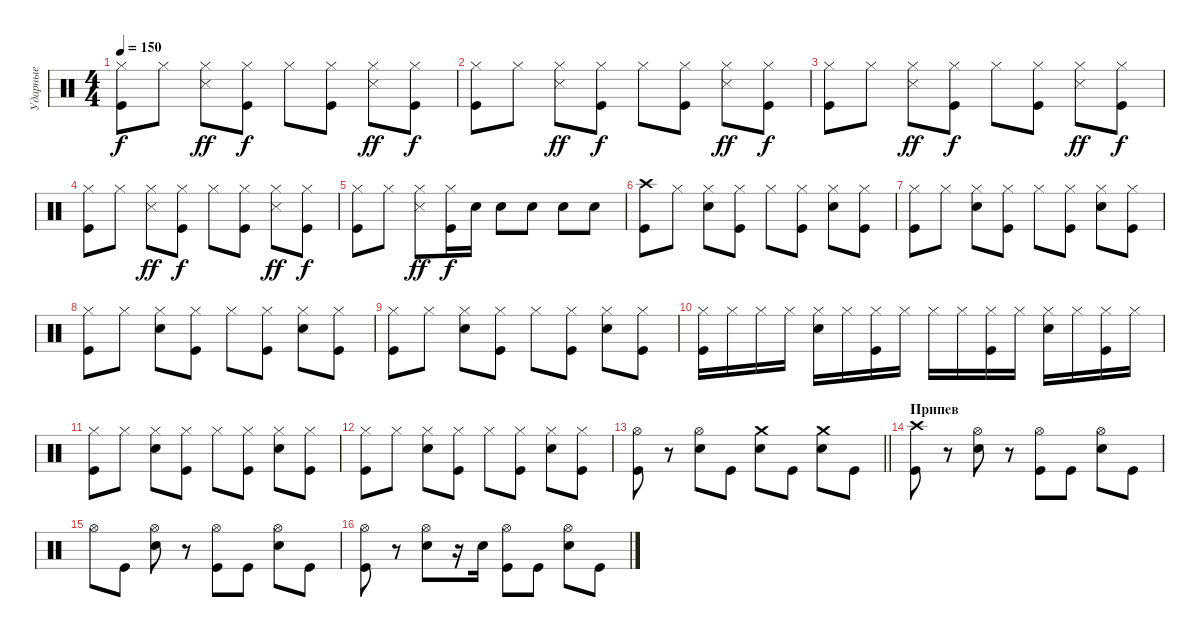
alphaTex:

\track ("Ударные" "Ударные") {instrument percussion}
\staff {score}
\articulation defaults
\ts (4 4)
\tempo 150
\clef neutral
\ks c
("Kick (hit)" "Hi-Hat (closed)").8{dy f} "Hi-Hat (closed)".8 ("Snare (side stick) 3" "Hi-Hat (closed)").8{dy ff} ("Kick (hit)" "Hi-Hat (closed)").8{dy f} "Hi-Hat (closed)".8 ("Kick (hit)" "Hi-Hat (closed)").8 ("Snare (side stick) 3" "Hi-Hat (closed)").8{dy ff} ("Kick (hit)" "Hi-Hat (closed)").8{dy f} |
("Kick (hit)" "Hi-Hat (closed)").8 "Hi-Hat (closed)".8 ("Snare (side stick) 3" "Hi-Hat (closed)").8{dy ff} ("Kick (hit)" "Hi-Hat (closed)").8{dy f} "Hi-Hat (closed)".8 ("Kick (hit)" "Hi-Hat (closed)").8 ("Snare (side stick) 3" "Hi-Hat (closed)").8{dy ff} ("Kick (hit)" "Hi-Hat (closed)").8{dy f} |
("Kick (hit)" "Hi-Hat (closed)").8 "Hi-Hat (closed)".8 ("Snare (side stick) 3" "Hi-Hat (closed)").8{dy ff} ("Kick (hit)" "Hi-Hat (closed)").8{dy f} "Hi-Hat (closed)".8 ("Kick (hit)" "Hi-Hat (closed)").8 ("Snare (side stick) 3" "Hi-Hat (closed)").8{dy ff} ("Kick (hit)" "Hi-Hat (closed)").8{dy f} |
("Kick (hit)" "Hi-Hat (closed)").8 "Hi-Hat (closed)".8 ("Snare (side stick) 3" "Hi-Hat (closed)").8{dy ff} ("Kick (hit)" "Hi-Hat (closed)").8{dy f} "Hi-Hat (closed)".8 ("Kick (hit)" "Hi-Hat (closed)").8 ("Snare (side stick) 3" "Hi-Hat (closed)").8{dy ff} ("Kick (hit)" "Hi-Hat (closed)").8{dy f} |
("Kick (hit)" "Hi-Hat (closed)").8 "Hi-Hat (closed)".8 ("Snare (side stick) 3" "Hi-Hat (closed)").8{dy ff} ("Kick (hit)" "Hi-Hat (closed)").16{dy f} "Snare (hit) 2".16 "Snare (hit) 2".8 "Snare (hit) 2".8 "Snare (hit) 2".8 "Snare (hit) 2".8 |
("Kick (hit)" "Crash high (hit)").8 "Hi-Hat (closed)".8 ("Snare (hit) 2" "Hi-Hat (closed)").8 ("Kick (hit)" "Hi-Hat (closed)").8 "Hi-Hat (closed)".8 ("Kick (hit)" "Hi-Hat (closed)").8 ("Snare (hit) 2" "Hi-Hat (closed)").8 ("Kick (hit)" "Hi-Hat (closed)").8 |
("Kick (hit)" "Hi-Hat (closed)").8 "Hi-Hat (closed)".8 ("Snare (hit) 2" "Hi-Hat (closed)").8 ("Kick (hit)" "Hi-Hat (closed)").8 "Hi-Hat (closed)".8 ("Kick (hit)" "Hi-Hat (closed)").8 ("Snare (hit) 2" "Hi-Hat (closed)").8 ("Kick (hit)" "Hi-Hat (closed)").8 |
("Kick (hit)" "Hi-Hat (closed)").8 "Hi-Hat (closed)".8 ("Snare (hit) 2" "Hi-Hat (closed)").8 ("Kick (hit)" "Hi-Hat (closed)").8 "Hi-Hat (closed)".8 ("Kick (hit)" "Hi-Hat (closed)").8 ("Snare (hit) 2" "Hi-Hat (closed)").8 ("Kick (hit)" "Hi-Hat (closed)").8 |
("Kick (hit)" "Hi-Hat (closed)").8 "Hi-Hat (closed)".8 ("Snare (hit) 2" "Hi-Hat (closed)").8 ("Kick (hit)" "Hi-Hat (closed)").8 "Hi-Hat (closed)".8 ("Kick (hit)" "Hi-Hat (closed)").8 ("Snare (hit) 2" "Hi-Hat (closed)").8 ("Kick (hit)" "Hi-Hat (closed)").8 |
("Kick (hit)" "Hi-Hat (closed)").16 "Hi-Hat (closed)".16 "Hi-Hat (closed)".16 "Hi-Hat (closed)".16 ("Snare (hit) 2" "Hi-Hat (closed)").16 "Hi-Hat (closed)".16 ("Kick (hit)" "Hi-Hat (closed)").16 "Hi-Hat (closed)".16 "Hi-Hat (closed)".16 "Hi-Hat (closed)".16 ("Kick (hit)" "Hi-Hat (closed)").16 "Hi-Hat (closed)".16 ("Snare (hit) 2" "Hi-Hat (closed)").16 "Hi-Hat (closed)".16 ("Kick (hit)" "Hi-Hat (closed)").16 "Hi-Hat (closed)".16 |
("Kick (hit)" "Hi-Hat (closed)").8 "Hi-Hat (closed)".8 ("Snare (hit) 2" "Hi-Hat (closed)").8 ("Kick (hit)" "Hi-Hat (closed)").8 "Hi-Hat (closed)".8 ("Kick (hit)" "Hi-Hat (closed)").8 ("Snare (hit) 2" "Hi-Hat (closed)").8 ("Kick (hit)" "Hi-Hat (closed)").8 |
("Kick (hit)" "Hi-Hat (closed)").8 "Hi-Hat (closed)".8 ("Snare (hit) 2" "Hi-Hat (closed)").8 ("Kick (hit)" "Hi-Hat (closed)").8 "Hi-Hat (closed)".8 ("Kick (hit)" "Hi-Hat (closed)").8 ("Snare (hit) 2" "Hi-Hat (closed)").8 ("Kick (hit)" "Hi-Hat (closed)").8 |
\barLineRight lightlight
("Kick (hit)" "Hi-Hat (open)").8 r.8 ("Snare (hit) 2" "Hi-Hat (open)").8 "Kick (hit)".8 ("Snare (hit) 2" "Crash medium (hit)").8 "Kick (hit)".8 ("Snare (hit) 2" "Crash medium (hit)").8 "Kick (hit)".8 |
\section ("" "Припев")
("Kick (hit)" "Crash high (hit)").8 r.8 ("Snare (hit) 2" "Hi-Hat (open)").8 r.8 ("Kick (hit)" "Hi-Hat (open)").8 "Kick (hit)".8 ("Snare (hit) 2" "Hi-Hat (open)").8 "Kick (hit)".8 |
"Hi-Hat (open)".8 "Kick (hit)".8 ("Snare (hit) 2" "Hi-Hat (open)").8 r.8 ("Kick (hit)" "Hi-Hat (open)").8 "Kick (hit)".8 ("Snare (hit) 2" "Hi-Hat (open)").8 "Kick (hit)".8 |
("Kick (hit)" "Hi-Hat (open)").8 r.8 ("Snare (hit) 2" "Hi-Hat (open)").8 r.16 "Snare (hit) 2".16 ("Kick (hit)" "Hi-Hat (open)").8 "Kick (hit)".8 ("Snare (hit) 2" "Hi-Hat (open)").8 "Kick (hit)".8
